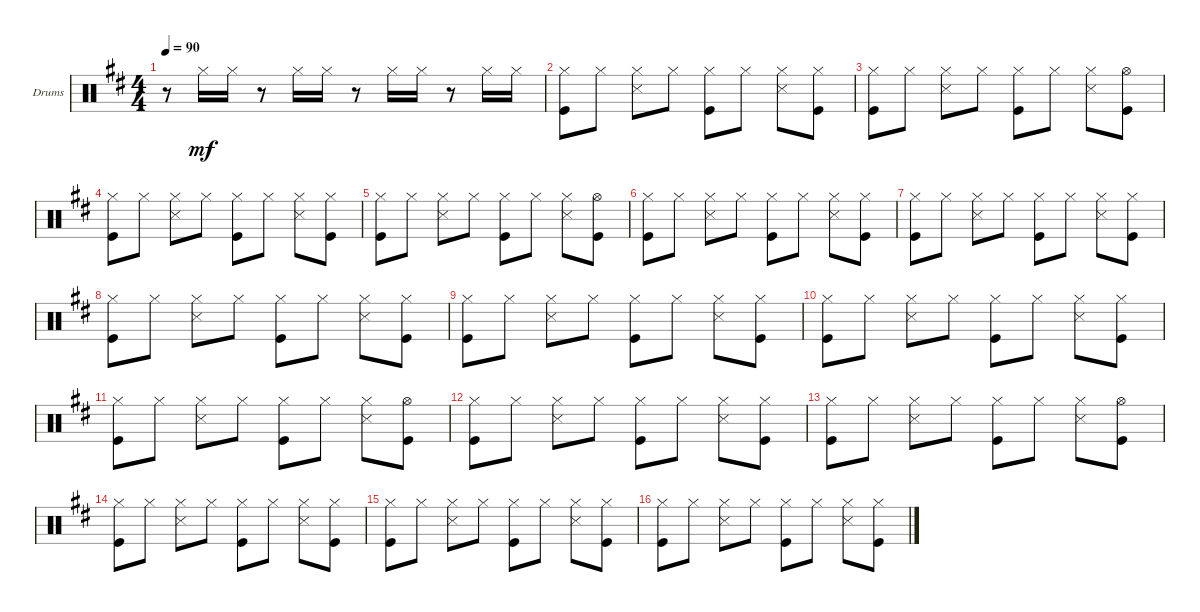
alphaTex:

\defaultSystemsLayout 4
\bracketExtendMode groupsimilarinstruments
\firstSystemTrackNameOrientation horizontal
\otherSystemsTrackNameOrientation horizontal
\track ("Drumkit" "Drums") {multiBarRest instrument percussion}
\staff {score}
\articulation defaults
\ts (4 4)
\tempo 90
\clef neutral
\scale
0.333333
\ks d
r.8{dy mf} "Hi-Hat (closed)".16 "Hi-Hat (closed)".16 r.8 "Hi-Hat (closed)".16 "Hi-Hat (closed)".16 r.8 "Hi-Hat (closed)".16 "Hi-Hat (closed)".16 r.8 "Hi-Hat (closed)".16 "Hi-Hat (closed)".16 |
\scale
0.333333 ("Hi-Hat (closed)" "Kick (hit)").8 "Hi-Hat (closed)".8 ("Hi-Hat (closed)" "Snare (side stick) 3").8 "Hi-Hat (closed)".8 ("Hi-Hat (closed)" "Kick (hit)").8 "Hi-Hat (closed)".8 ("Hi-Hat (closed)" "Snare (side stick) 3").8 ("Hi-Hat (closed)" "Kick (hit)").8 |
\scale
0.333333 ("Hi-Hat (closed)" "Kick (hit)").8 "Hi-Hat (closed)".8 ("Hi-Hat (closed)" "Snare (side stick) 3").8 "Hi-Hat (closed)".8 ("Hi-Hat (closed)" "Kick (hit)").8 "Hi-Hat (closed)".8 ("Hi-Hat (closed)" "Snare (side stick) 3").8 ("Hi-Hat (open)" "Kick (hit)").8 |
\scale
0.333333 ("Hi-Hat (closed)" "Kick (hit)").8 "Hi-Hat (closed)".8 ("Hi-Hat (closed)" "Snare (side stick) 3").8 "Hi-Hat (closed)".8 ("Hi-Hat (closed)" "Kick (hit)").8 "Hi-Hat (closed)".8 ("Hi-Hat (closed)" "Snare (side stick) 3").8 ("Hi-Hat (closed)" "Kick (hit)").8 |
\scale
0.333333 ("Hi-Hat (closed)" "Kick (hit)").8 "Hi-Hat (closed)".8 ("Hi-Hat (closed)" "Snare (side stick) 3").8 "Hi-Hat (closed)".8 ("Hi-Hat (closed)" "Kick (hit)").8 "Hi-Hat (closed)".8 ("Hi-Hat (closed)" "Snare (side stick) 3").8 ("Hi-Hat (open)" "Kick (hit)").8 |
\scale
0.333333 ("Hi-Hat (closed)" "Kick (hit)").8 "Hi-Hat (closed)".8 ("Hi-Hat (closed)" "Snare (side stick) 3").8 "Hi-Hat (closed)".8 ("Hi-Hat (closed)" "Kick (hit)").8 "Hi-Hat (closed)".8 ("Hi-Hat (closed)" "Snare (side stick) 3").8 ("Hi-Hat (closed)" "Kick (hit)").8 |
\scale
0.333333 ("Hi-Hat (closed)" "Kick (hit)").8 "Hi-Hat (closed)".8 ("Hi-Hat (closed)" "Snare (side stick) 3").8 "Hi-Hat (closed)".8 ("Hi-Hat (closed)" "Kick (hit)").8 "Hi-Hat (closed)".8 ("Hi-Hat (closed)" "Snare (side stick) 3").8 ("Hi-Hat (closed)" "Kick (hit)").8 |
\scale
0.333333 ("Hi-Hat (closed)" "Kick (hit)").8 "Hi-Hat (closed)".8 ("Hi-Hat (closed)" "Snare (side stick) 3").8 "Hi-Hat (closed)".8 ("Hi-Hat (closed)" "Kick (hit)").8 "Hi-Hat (closed)".8 ("Hi-Hat (closed)" "Snare (side stick) 3").8 ("Hi-Hat (closed)" "Kick (hit)").8 |
\scale
0.333333 ("Hi-Hat (closed)" "Kick (hit)").8 "Hi-Hat (closed)".8 ("Hi-Hat (closed)" "Snare (side stick) 3").8 "Hi-Hat (closed)".8 ("Hi-Hat (closed)" "Kick (hit)").8 "Hi-Hat (closed)".8 ("Hi-Hat (closed)" "Snare (side stick) 3").8 ("Hi-Hat (closed)" "Kick (hit)").8 |
\scale
0.333333 ("Hi-Hat (closed)" "Kick (hit)").8 "Hi-Hat (closed)".8 ("Hi-Hat (closed)" "Snare (side stick) 3").8 "Hi-Hat (closed)".8 ("Hi-Hat (closed)" "Kick (hit)").8 "Hi-Hat (closed)".8 ("Hi-Hat (closed)" "Snare (side stick) 3").8 ("Hi-Hat (closed)" "Kick (hit)").8 |
\scale
0.333333 ("Hi-Hat (closed)" "Kick (hit)").8 "Hi-Hat (closed)".8 ("Hi-Hat (closed)" "Snare (side stick) 3").8 "Hi-Hat (closed)".8 ("Hi-Hat (closed)" "Kick (hit)").8 "Hi-Hat (closed)".8 ("Hi-Hat (closed)" "Snare (side stick) 3").8 ("Hi-Hat (open)" "Kick (hit)").8 |
\scale
0.333333 ("Hi-Hat (closed)" "Kick (hit)").8 "Hi-Hat (closed)".8 ("Hi-Hat (closed)" "Snare (side stick) 3").8 "Hi-Hat (closed)".8 ("Hi-Hat (closed)" "Kick (hit)").8 "Hi-Hat (closed)".8 ("Hi-Hat (closed)" "Snare (side stick) 3").8 ("Hi-Hat (closed)" "Kick (hit)").8 |
\scale
0.333333 ("Hi-Hat (closed)" "Kick (hit)").8 "Hi-Hat (closed)".8 ("Hi-Hat (closed)" "Snare (side stick) 3").8 "Hi-Hat (closed)".8 ("Hi-Hat (closed)" "Kick (hit)").8 "Hi-Hat (closed)".8 ("Hi-Hat (closed)" "Snare (side stick) 3").8 ("Hi-Hat (open)" "Kick (hit)").8 |
\scale
0.333333 ("Hi-Hat (closed)" "Kick (hit)").8 "Hi-Hat (closed)".8 ("Hi-Hat (closed)" "Snare (side stick) 3").8 "Hi-Hat (closed)".8 ("Hi-Hat (closed)" "Kick (hit)").8 "Hi-Hat (closed)".8 ("Hi-Hat (closed)" "Snare (side stick) 3").8 ("Hi-Hat (closed)" "Kick (hit)").8 |
\scale
0.333333 ("Hi-Hat (closed)" "Kick (hit)").8 "Hi-Hat (closed)".8 ("Hi-Hat (closed)" "Snare (side stick) 3").8 "Hi-Hat (closed)".8 ("Hi-Hat (closed)" "Kick (hit)").8 "Hi-Hat (closed)".8 ("Hi-Hat (closed)" "Snare (side stick) 3").8 ("Hi-Hat (closed)" "Kick (hit)").8 |
\scale
0.333333 ("Hi-Hat (closed)" "Kick (hit)").8 "Hi-Hat (closed)".8 ("Hi-Hat (closed)" "Snare (side stick) 3").8 "Hi-Hat (closed)".8 ("Hi-Hat (closed)" "Kick (hit)").8 "Hi-Hat (closed)".8 ("Hi-Hat (closed)" "Snare (side stick) 3").8 ("Hi-Hat (closed)" "Kick (hit)").8
